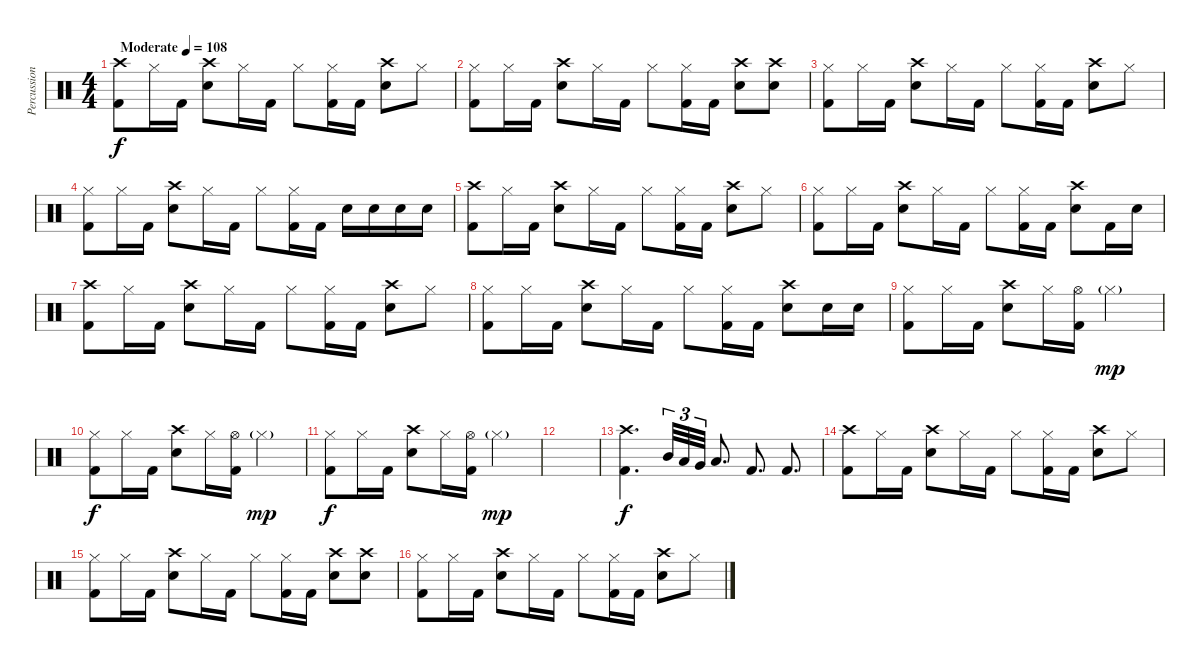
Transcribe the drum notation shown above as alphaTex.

\track ("Percussion" "Percussion") {instrument percussion}
\staff {score}
\articulation defaults
\ts (4 4)
\tempo (108 "Moderate")
\clef neutral
\ks c
("Crash high (hit)" "Kick (hit) 2").8{dy f} "Hi-Hat (closed)".16 "Kick (hit) 2".16 ("Crash high (hit)" "Snare (hit) 2").8 "Hi-Hat (closed)".16 "Kick (hit) 2".16 "Hi-Hat (closed)".8 ("Hi-Hat (closed)" "Kick (hit) 2").16 "Kick (hit) 2".16 ("Crash high (hit)" "Snare (hit) 2").8 "Hi-Hat (closed)".8 |
("Hi-Hat (closed)" "Kick (hit) 2").8 "Hi-Hat (closed)".16 "Kick (hit) 2".16 ("Crash high (hit)" "Snare (hit) 2").8 "Hi-Hat (closed)".16 "Kick (hit) 2".16 "Hi-Hat (closed)".8 ("Hi-Hat (closed)" "Kick (hit) 2").16 "Kick (hit) 2".16 ("Crash high (hit)" "Snare (hit) 2").8 ("Crash high (hit)" "Snare (hit) 2").8 |
("Hi-Hat (closed)" "Kick (hit) 2").8 "Hi-Hat (closed)".16 "Kick (hit) 2".16 ("Crash high (hit)" "Snare (hit) 2").8 "Hi-Hat (closed)".16 "Kick (hit) 2".16 "Hi-Hat (closed)".8 ("Hi-Hat (closed)" "Kick (hit) 2").16 "Kick (hit) 2".16 ("Crash high (hit)" "Snare (hit) 2").8 "Hi-Hat (closed)".8 |
("Hi-Hat (closed)" "Kick (hit) 2").8 "Hi-Hat (closed)".16 "Kick (hit) 2".16 ("Crash high (hit)" "Snare (hit) 2").8 "Hi-Hat (closed)".16 "Kick (hit) 2".16 "Hi-Hat (closed)".8 ("Hi-Hat (closed)" "Kick (hit) 2").16 "Kick (hit) 2".16 "Snare (hit) 2".16 "Snare (hit) 2".16 "Snare (hit) 2".16 "Snare (hit) 2".16 |
("Crash high (hit)" "Kick (hit) 2").8 "Hi-Hat (closed)".16 "Kick (hit) 2".16 ("Crash high (hit)" "Snare (hit) 2").8 "Hi-Hat (closed)".16 "Kick (hit) 2".16 "Hi-Hat (closed)".8 ("Hi-Hat (closed)" "Kick (hit) 2").16 "Kick (hit) 2".16 ("Crash high (hit)" "Snare (hit) 2").8 "Hi-Hat (closed)".8 |
("Hi-Hat (closed)" "Kick (hit) 2").8 "Hi-Hat (closed)".16 "Kick (hit) 2".16 ("Crash high (hit)" "Snare (hit) 2").8 "Hi-Hat (closed)".16 "Kick (hit) 2".16 "Hi-Hat (closed)".8 ("Hi-Hat (closed)" "Kick (hit) 2").16 "Kick (hit) 2".16 ("Crash high (hit)" "Snare (hit) 2").8 "Kick (hit) 2".16 "Snare (hit) 2".16 |
("Crash high (hit)" "Kick (hit) 2").8 "Hi-Hat (closed)".16 "Kick (hit) 2".16 ("Crash high (hit)" "Snare (hit) 2").8 "Hi-Hat (closed)".16 "Kick (hit) 2".16 "Hi-Hat (closed)".8 ("Hi-Hat (closed)" "Kick (hit) 2").16 "Kick (hit) 2".16 ("Crash high (hit)" "Snare (hit) 2").8 "Hi-Hat (closed)".8 |
("Hi-Hat (closed)" "Kick (hit) 2").8 "Hi-Hat (closed)".16 "Kick (hit) 2".16 ("Crash high (hit)" "Snare (hit) 2").8 "Hi-Hat (closed)".16 "Kick (hit) 2".16 "Hi-Hat (closed)".8 ("Hi-Hat (closed)" "Kick (hit) 2").16 "Kick (hit) 2".16 ("Crash high (hit)" "Snare (hit) 2").8 "Snare (hit) 2".16 "Snare (hit) 2".16 |
("Hi-Hat (closed)" "Kick (hit) 2").8 "Hi-Hat (closed)".16 "Kick (hit) 2".16 ("Crash high (hit)" "Snare (hit) 2").8 "Hi-Hat (closed)".16 ("Hi-Hat (open)" "Kick (hit) 2").16 "Hi-Hat (closed)"{g}.2{dy mp} |
("Hi-Hat (closed)" "Kick (hit) 2").8{dy f} "Hi-Hat (closed)".16 "Kick (hit) 2".16 ("Crash high (hit)" "Snare (hit) 2").8 "Hi-Hat (closed)".16 ("Hi-Hat (open)" "Kick (hit) 2").16 "Hi-Hat (closed)"{g}.2{dy mp} |
("Hi-Hat (closed)" "Kick (hit) 2").8{dy f} "Hi-Hat (closed)".16 "Kick (hit) 2".16 ("Crash high (hit)" "Snare (hit) 2").8 "Hi-Hat (closed)".16 ("Hi-Hat (open)" "Kick (hit) 2").16 "Hi-Hat (closed)"{g}.2{dy mp} |
|
("Crash high (hit)" "Kick (hit) 2").4{d dy f} "Mid Tom (hit)".32{tu (3 2)} "Low Tom (hit)".32{tu (3 2)} "Very Low Tom (hit)".32{tu (3 2)} "Low Floor Tom (hit)".8{d} "Kick (hit) 2".8{d} "Kick (hit) 2".8{d} |
("Crash high (hit)" "Kick (hit) 2").8 "Hi-Hat (closed)".16 "Kick (hit) 2".16 ("Crash high (hit)" "Snare (hit) 2").8 "Hi-Hat (closed)".16 "Kick (hit) 2".16 "Hi-Hat (closed)".8 ("Hi-Hat (closed)" "Kick (hit) 2").16 "Kick (hit) 2".16 ("Crash high (hit)" "Snare (hit) 2").8 "Hi-Hat (closed)".8 |
("Hi-Hat (closed)" "Kick (hit) 2").8 "Hi-Hat (closed)".16 "Kick (hit) 2".16 ("Crash high (hit)" "Snare (hit) 2").8 "Hi-Hat (closed)".16 "Kick (hit) 2".16 "Hi-Hat (closed)".8 ("Hi-Hat (closed)" "Kick (hit) 2").16 "Kick (hit) 2".16 ("Crash high (hit)" "Snare (hit) 2").8 ("Crash high (hit)" "Snare (hit) 2").8 |
("Hi-Hat (closed)" "Kick (hit) 2").8 "Hi-Hat (closed)".16 "Kick (hit) 2".16 ("Crash high (hit)" "Snare (hit) 2").8 "Hi-Hat (closed)".16 "Kick (hit) 2".16 "Hi-Hat (closed)".8 ("Hi-Hat (closed)" "Kick (hit) 2").16 "Kick (hit) 2".16 ("Crash high (hit)" "Snare (hit) 2").8 "Hi-Hat (closed)".8
